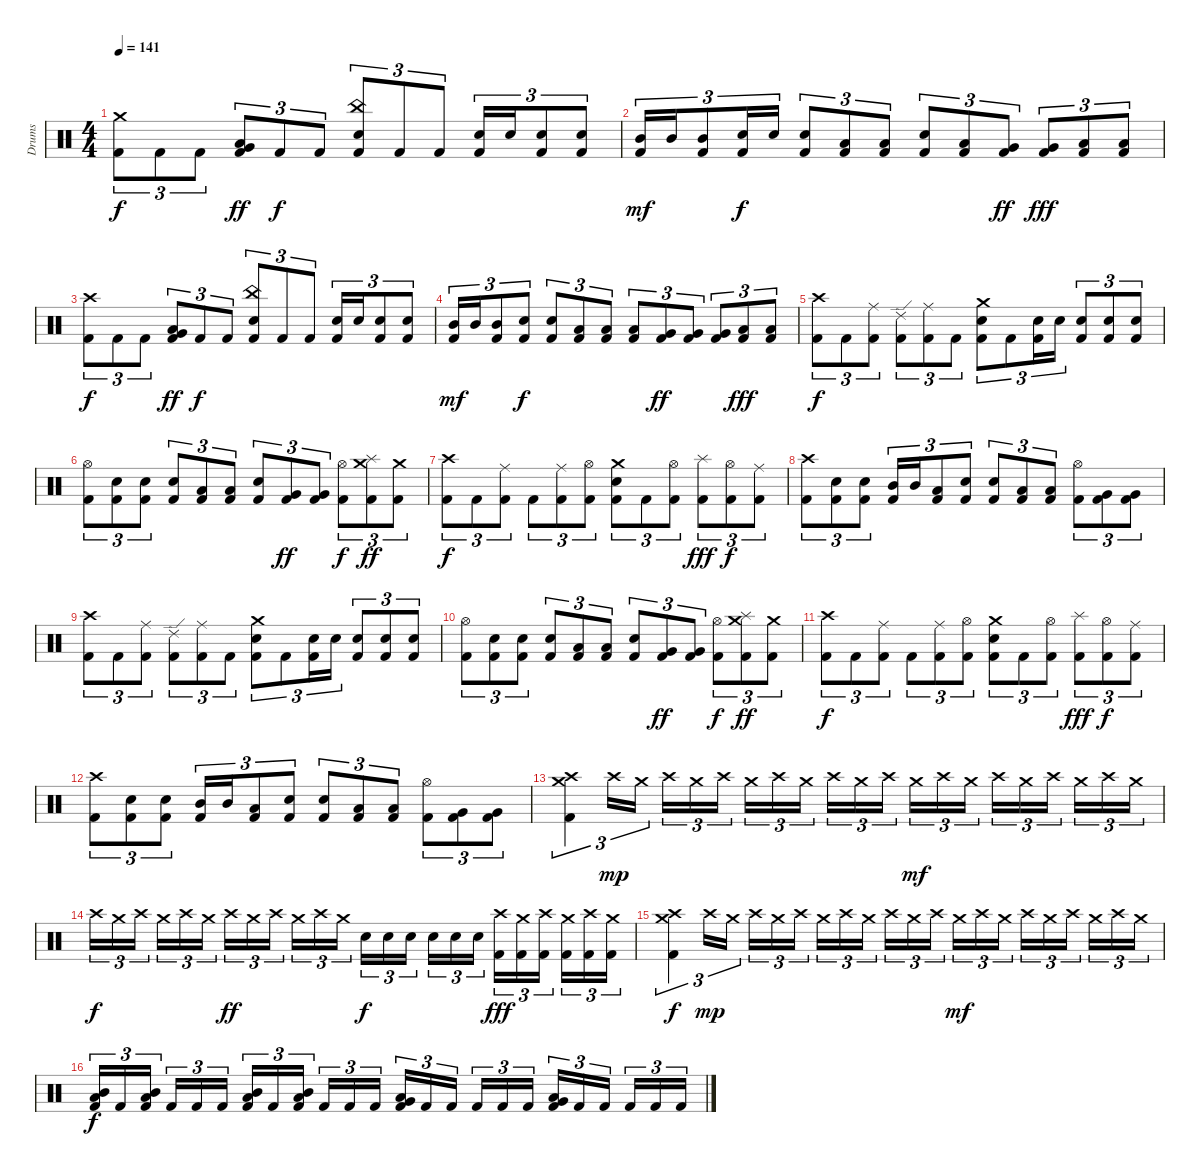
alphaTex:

\track ("Drums" "Drums") {instrument percussion}
\staff {score}
\articulation defaults
\ts (4 4)
\tempo 141
\clef neutral
\ks c
("Crash medium (hit)" "Kick (hit) 2").8{tu (3 2) dy f} "Kick (hit) 2".8{tu (3 2)} "Kick (hit) 2".8{tu (3 2)} ("Very Low Tom (hit)" "Low Tom (hit)" "Kick (hit) 2").8{tu (3 2) dy ff} "Kick (hit) 2".8{tu (3 2) dy f} "Kick (hit) 2".8{tu (3 2)} ("China (hit)" "Electric Snare (hit)" "Kick (hit) 2").8{tu (3 2)} "Kick (hit) 2".8{tu (3 2)} "Kick (hit) 2".8{tu (3 2)} ("Electric Snare (hit)" "Kick (hit) 2").16{tu (3 2)} "Electric Snare (hit)".16{tu (3 2)} ("Electric Snare (hit)" "Kick (hit) 2").8{tu (3 2)} ("Electric Snare (hit)" "Kick (hit) 2").8{tu (3 2)} |
("Mid Tom (hit)" "Kick (hit) 2").16{tu (3 2) dy mf} "Mid Tom (hit)".16{tu (3 2)} ("Mid Tom (hit)" "Kick (hit) 2").8{tu (3 2)} ("Electric Snare (hit)" "Kick (hit) 2").16{tu (3 2) dy f} "Electric Snare (hit)".16{tu (3 2)} ("Electric Snare (hit)" "Kick (hit) 2").8{tu (3 2)} ("Low Tom (hit)" "Kick (hit) 2").8{tu (3 2)} ("Low Tom (hit)" "Kick (hit) 2").8{tu (3 2)} ("Electric Snare (hit)" "Kick (hit) 2").8{tu (3 2)} ("Low Tom (hit)" "Kick (hit) 2").8{tu (3 2)} ("Very Low Tom (hit)" "Kick (hit) 2").8{tu (3 2) dy ff} ("Very Low Tom (hit)" "Kick (hit) 2").8{tu (3 2) dy fff} ("Low Floor Tom (hit)" "Kick (hit) 2").8{tu (3 2)} ("Low Floor Tom (hit)" "Kick (hit) 2").8{tu (3 2)} |
("Crash high (hit)" "Kick (hit) 2").8{tu (3 2) dy f} "Kick (hit) 2".8{tu (3 2)} "Kick (hit) 2".8{tu (3 2)} ("Very Low Tom (hit)" "Low Tom (hit)" "Kick (hit) 2").8{tu (3 2) dy ff} "Kick (hit) 2".8{tu (3 2) dy f} "Kick (hit) 2".8{tu (3 2)} ("China (hit)" "Electric Snare (hit)" "Kick (hit) 2").8{tu (3 2)} "Kick (hit) 2".8{tu (3 2)} "Kick (hit) 2".8{tu (3 2)} ("Electric Snare (hit)" "Kick (hit) 2").16{tu (3 2)} "Electric Snare (hit)".16{tu (3 2)} ("Electric Snare (hit)" "Kick (hit) 2").8{tu (3 2)} ("Electric Snare (hit)" "Kick (hit) 2").8{tu (3 2)} |
("Mid Tom (hit)" "Kick (hit) 2").16{tu (3 2) dy mf} "Mid Tom (hit)".16{tu (3 2)} ("Mid Tom (hit)" "Kick (hit) 2").8{tu (3 2)} ("Electric Snare (hit)" "Kick (hit) 2").8{tu (3 2) dy f} ("Electric Snare (hit)" "Kick (hit) 2").8{tu (3 2)} ("Low Tom (hit)" "Kick (hit) 2").8{tu (3 2)} ("Low Tom (hit)" "Kick (hit) 2").8{tu (3 2)} ("Low Tom (hit)" "Kick (hit) 2").8{tu (3 2)} ("Very Low Tom (hit)" "Kick (hit) 2").8{tu (3 2) dy ff} ("Very Low Tom (hit)" "Kick (hit) 2").8{tu (3 2)} ("Very Low Tom (hit)" "Kick (hit) 2").8{tu (3 2)} ("Low Floor Tom (hit)" "Kick (hit) 2").8{tu (3 2) dy fff} ("Low Floor Tom (hit)" "Kick (hit) 2").8{tu (3 2)} |
("Crash high (hit)" "Kick (hit) 2").8{tu (3 2) dy f} "Kick (hit) 2".8{tu (3 2)} ("Ride (middle)" "Kick (hit) 2").8{tu (3 2)} ("Ride (edge) 2" "Kick (hit) 2").8{tu (3 2)} ("Ride (middle)" "Kick (hit) 2").8{tu (3 2)} "Kick (hit) 2".8{tu (3 2)} ("Crash medium (hit)" "Electric Snare (hit)" "Kick (hit) 2").8{tu (3 2)} "Kick (hit) 2".8{tu (3 2)} ("Electric Snare (hit)" "Kick (hit) 2").16{tu (3 2)} "Electric Snare (hit)".16{tu (3 2)} ("Electric Snare (hit)" "Kick (hit) 2").8{tu (3 2)} ("Electric Snare (hit)" "Kick (hit) 2").8{tu (3 2)} ("Electric Snare (hit)" "Kick (hit) 2").8{tu (3 2)} |
("Hi-Hat (open)" "Kick (hit) 2").8{tu (3 2)} ("Electric Snare (hit)" "Kick (hit) 2").8{tu (3 2)} ("Electric Snare (hit)" "Kick (hit) 2").8{tu (3 2)} ("Electric Snare (hit)" "Kick (hit) 2").8{tu (3 2)} ("Low Tom (hit)" "Kick (hit) 2").8{tu (3 2)} ("Low Tom (hit)" "Kick (hit) 2").8{tu (3 2)} ("Electric Snare (hit)" "Kick (hit) 2").8{tu (3 2)} ("Very Low Tom (hit)" "Kick (hit) 2").8{tu (3 2) dy ff} ("Very Low Tom (hit)" "Kick (hit) 2").8{tu (3 2)} ("Hi-Hat (open)" "Kick (hit) 2").8{tu (3 2) dy f} ("Crash medium (hit)" "Splash (hit)" "Kick (hit) 2").8{tu (3 2) dy ff} ("Crash medium (hit)" "Kick (hit) 2").8{tu (3 2)} |
("Crash high (hit)" "Kick (hit) 2").8{tu (3 2) dy f} "Kick (hit) 2".8{tu (3 2)} ("Ride (middle)" "Kick (hit) 2").8{tu (3 2)} "Kick (hit) 2".8{tu (3 2)} ("Ride (middle)" "Kick (hit) 2").8{tu (3 2)} ("Hi-Hat (open)" "Kick (hit) 2").8{tu (3 2)} ("Crash medium (hit)" "Electric Snare (hit)" "Kick (hit) 2").8{tu (3 2)} "Kick (hit) 2".8{tu (3 2)} ("Hi-Hat (open)" "Kick (hit) 2").8{tu (3 2)} ("Splash (hit)" "Kick (hit) 2").8{tu (3 2) dy fff} ("Hi-Hat (open)" "Kick (hit) 2").8{tu (3 2) dy f} ("Ride (middle)" "Kick (hit) 2").8{tu (3 2)} |
("Crash high (hit)" "Kick (hit) 2").8{tu (3 2)} ("Electric Snare (hit)" "Kick (hit) 2").8{tu (3 2)} ("Electric Snare (hit)" "Kick (hit) 2").8{tu (3 2)} ("Mid Tom (hit)" "Kick (hit) 2").16{tu (3 2)} "Mid Tom (hit)".16{tu (3 2)} ("Low Tom (hit)" "Kick (hit) 2").8{tu (3 2)} ("Electric Snare (hit)" "Kick (hit) 2").8{tu (3 2)} ("Electric Snare (hit)" "Kick (hit) 2").8{tu (3 2)} ("Low Tom (hit)" "Kick (hit) 2").8{tu (3 2)} ("Low Tom (hit)" "Kick (hit) 2").8{tu (3 2)} ("Hi-Hat (open)" "Kick (hit) 2").8{tu (3 2)} ("Very Low Tom (hit)" "Kick (hit) 2").8{tu (3 2)} ("Very Low Tom (hit)" "Kick (hit) 2").8{tu (3 2)} |
("Crash high (hit)" "Kick (hit) 2").8{tu (3 2)} "Kick (hit) 2".8{tu (3 2)} ("Ride (middle)" "Kick (hit) 2").8{tu (3 2)} ("Ride (edge) 2" "Kick (hit) 2").8{tu (3 2)} ("Ride (middle)" "Kick (hit) 2").8{tu (3 2)} "Kick (hit) 2".8{tu (3 2)} ("Crash medium (hit)" "Electric Snare (hit)" "Kick (hit) 2").8{tu (3 2)} "Kick (hit) 2".8{tu (3 2)} ("Electric Snare (hit)" "Kick (hit) 2").16{tu (3 2)} "Electric Snare (hit)".16{tu (3 2)} ("Electric Snare (hit)" "Kick (hit) 2").8{tu (3 2)} ("Electric Snare (hit)" "Kick (hit) 2").8{tu (3 2)} ("Electric Snare (hit)" "Kick (hit) 2").8{tu (3 2)} |
("Hi-Hat (open)" "Kick (hit) 2").8{tu (3 2)} ("Electric Snare (hit)" "Kick (hit) 2").8{tu (3 2)} ("Electric Snare (hit)" "Kick (hit) 2").8{tu (3 2)} ("Electric Snare (hit)" "Kick (hit) 2").8{tu (3 2)} ("Low Tom (hit)" "Kick (hit) 2").8{tu (3 2)} ("Low Tom (hit)" "Kick (hit) 2").8{tu (3 2)} ("Electric Snare (hit)" "Kick (hit) 2").8{tu (3 2)} ("Very Low Tom (hit)" "Kick (hit) 2").8{tu (3 2) dy ff} ("Very Low Tom (hit)" "Kick (hit) 2").8{tu (3 2)} ("Hi-Hat (open)" "Kick (hit) 2").8{tu (3 2) dy f} ("Crash medium (hit)" "Splash (hit)" "Kick (hit) 2").8{tu (3 2) dy ff} ("Crash medium (hit)" "Kick (hit) 2").8{tu (3 2)} |
("Crash high (hit)" "Kick (hit) 2").8{tu (3 2) dy f} "Kick (hit) 2".8{tu (3 2)} ("Ride (middle)" "Kick (hit) 2").8{tu (3 2)} "Kick (hit) 2".8{tu (3 2)} ("Ride (middle)" "Kick (hit) 2").8{tu (3 2)} ("Hi-Hat (open)" "Kick (hit) 2").8{tu (3 2)} ("Crash medium (hit)" "Electric Snare (hit)" "Kick (hit) 2").8{tu (3 2)} "Kick (hit) 2".8{tu (3 2)} ("Hi-Hat (open)" "Kick (hit) 2").8{tu (3 2)} ("Splash (hit)" "Kick (hit) 2").8{tu (3 2) dy fff} ("Hi-Hat (open)" "Kick (hit) 2").8{tu (3 2) dy f} ("Ride (middle)" "Kick (hit) 2").8{tu (3 2)} |
("Crash high (hit)" "Kick (hit) 2").8{tu (3 2)} ("Electric Snare (hit)" "Kick (hit) 2").8{tu (3 2)} ("Electric Snare (hit)" "Kick (hit) 2").8{tu (3 2)} ("Mid Tom (hit)" "Kick (hit) 2").16{tu (3 2)} "Mid Tom (hit)".16{tu (3 2)} ("Low Tom (hit)" "Kick (hit) 2").8{tu (3 2)} ("Electric Snare (hit)" "Kick (hit) 2").8{tu (3 2)} ("Electric Snare (hit)" "Kick (hit) 2").8{tu (3 2)} ("Low Tom (hit)" "Kick (hit) 2").8{tu (3 2)} ("Low Tom (hit)" "Kick (hit) 2").8{tu (3 2)} ("Hi-Hat (open)" "Kick (hit) 2").8{tu (3 2)} ("Very Low Tom (hit)" "Kick (hit) 2").8{tu (3 2)} ("Very Low Tom (hit)" "Kick (hit) 2").8{tu (3 2)} |
("Crash medium (hit)" "Crash high (hit)" "Kick (hit) 2").4{tu (3 2)} "Crash high (hit)".16{tu (3 2) dy mp} "Crash medium (hit)".16{tu (3 2)} "Crash high (hit)".16{tu (3 2)} "Crash medium (hit)".16{tu (3 2)} "Crash high (hit)".16{tu (3 2)} "Crash medium (hit)".16{tu (3 2)} "Crash high (hit)".16{tu (3 2)} "Crash medium (hit)".16{tu (3 2)} "Crash high (hit)".16{tu (3 2)} "Crash medium (hit)".16{tu (3 2)} "Crash high (hit)".16{tu (3 2)} "Crash medium (hit)".16{tu (3 2) dy mf} "Crash high (hit)".16{tu (3 2)} "Crash medium (hit)".16{tu (3 2)} "Crash high (hit)".16{tu (3 2)} "Crash medium (hit)".16{tu (3 2)} "Crash high (hit)".16{tu (3 2)} "Crash medium (hit)".16{tu (3 2)} "Crash high (hit)".16{tu (3 2)} "Crash medium (hit)".16{tu (3 2)} |
"Crash high (hit)".16{tu (3 2) dy f} "Crash medium (hit)".16{tu (3 2)} "Crash high (hit)".16{tu (3 2)} "Crash medium (hit)".16{tu (3 2)} "Crash high (hit)".16{tu (3 2)} "Crash medium (hit)".16{tu (3 2)} "Crash high (hit)".16{tu (3 2) dy ff} "Crash medium (hit)".16{tu (3 2)} "Crash high (hit)".16{tu (3 2)} "Crash medium (hit)".16{tu (3 2)} "Crash high (hit)".16{tu (3 2)} "Crash medium (hit)".16{tu (3 2)} "Electric Snare (hit)".16{tu (3 2) dy f} "Electric Snare (hit)".16{tu (3 2)} "Electric Snare (hit)".16{tu (3 2)} "Electric Snare (hit)".16{tu (3 2)} "Electric Snare (hit)".16{tu (3 2)} "Electric Snare (hit)".16{tu (3 2)} ("Crash high (hit)" "Kick (hit) 2").16{tu (3 2) dy fff} ("Crash medium (hit)" "Kick (hit) 2").16{tu (3 2)} ("Crash high (hit)" "Kick (hit) 2").16{tu (3 2)} ("Crash medium (hit)" "Kick (hit) 2").16{tu (3 2)} ("Crash high (hit)" "Kick (hit) 2").16{tu (3 2)} ("Crash medium (hit)" "Kick (hit) 2").16{tu (3 2)} |
("Crash medium (hit)" "Crash high (hit)" "Kick (hit) 2").4{tu (3 2) dy f} "Crash high (hit)".16{tu (3 2) dy mp} "Crash medium (hit)".16{tu (3 2)} "Crash high (hit)".16{tu (3 2)} "Crash medium (hit)".16{tu (3 2)} "Crash high (hit)".16{tu (3 2)} "Crash medium (hit)".16{tu (3 2)} "Crash high (hit)".16{tu (3 2)} "Crash medium (hit)".16{tu (3 2)} "Crash high (hit)".16{tu (3 2)} "Crash medium (hit)".16{tu (3 2)} "Crash high (hit)".16{tu (3 2)} "Crash medium (hit)".16{tu (3 2) dy mf} "Crash high (hit)".16{tu (3 2)} "Crash medium (hit)".16{tu (3 2)} "Crash high (hit)".16{tu (3 2)} "Crash medium (hit)".16{tu (3 2)} "Crash high (hit)".16{tu (3 2)} "Crash medium (hit)".16{tu (3 2)} "Crash high (hit)".16{tu (3 2)} "Crash medium (hit)".16{tu (3 2)} |
("Mid Tom (hit)" "Low Tom (hit)" "Kick (hit) 2").16{tu (3 2) dy f} "Kick (hit) 2".16{tu (3 2)} ("Mid Tom (hit)" "Low Tom (hit)" "Kick (hit) 2").16{tu (3 2)} "Kick (hit) 2".16{tu (3 2)} "Kick (hit) 2".16{tu (3 2)} "Kick (hit) 2".16{tu (3 2)} ("Mid Tom (hit)" "Low Tom (hit)" "Kick (hit) 2").16{tu (3 2)} "Kick (hit) 2".16{tu (3 2)} ("Mid Tom (hit)" "Low Tom (hit)" "Kick (hit) 2").16{tu (3 2)} "Kick (hit) 2".16{tu (3 2)} "Kick (hit) 2".16{tu (3 2)} "Kick (hit) 2".16{tu (3 2)} ("Low Tom (hit)" "Very Low Tom (hit)" "Kick (hit) 2").16{tu (3 2)} "Kick (hit) 2".16{tu (3 2)} "Kick (hit) 2".16{tu (3 2)} "Kick (hit) 2".16{tu (3 2)} "Kick (hit) 2".16{tu (3 2)} "Kick (hit) 2".16{tu (3 2)} ("Very Low Tom (hit)" "Low Floor Tom (hit)" "Kick (hit) 2").16{tu (3 2)} "Kick (hit) 2".16{tu (3 2)} "Kick (hit) 2".16{tu (3 2)} "Kick (hit) 2".16{tu (3 2)} "Kick (hit) 2".16{tu (3 2)} "Kick (hit) 2".16{tu (3 2)}
